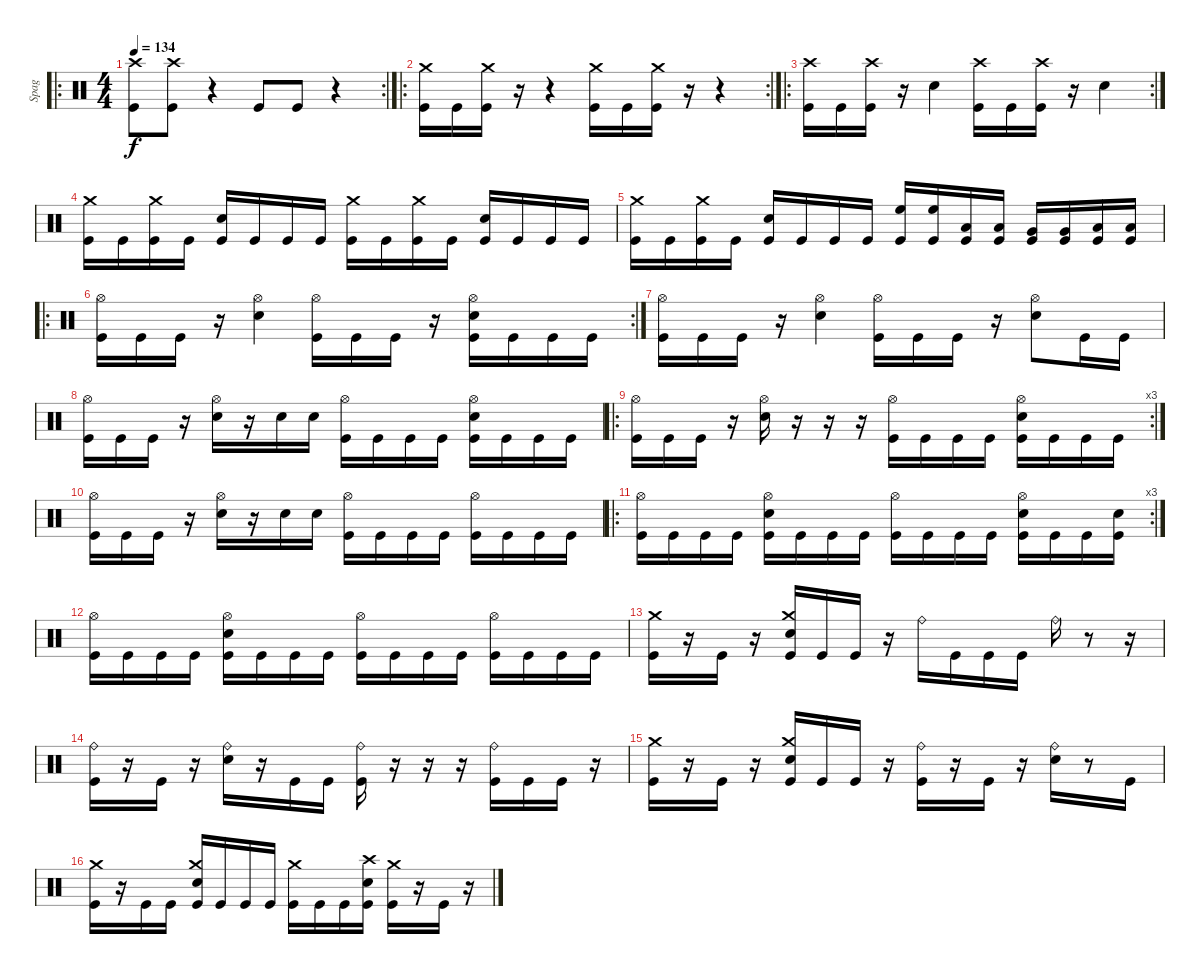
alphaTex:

\track ("Spag" "Spag") {instrument percussion}
\staff {score}
\articulation defaults
\ro
\rc 2
\ts (4 4)
\tempo 134
\clef neutral
\ks c
("Crash high (hit)" "Kick (hit)").8{dy f} ("Crash high (hit)" "Kick (hit)").8 r.4 "Kick (hit)".8 "Kick (hit)".8 r.4 |
\ro
\rc 2
("Crash medium (hit)" "Kick (hit)").16 "Kick (hit)".16 ("Crash medium (hit)" "Kick (hit)").16 r.16 r.4 ("Crash medium (hit)" "Kick (hit)").16 "Kick (hit)".16 ("Crash medium (hit)" "Kick (hit)").16 r.16 r.4 |
\ro
\rc 2
("Crash high (hit)" "Kick (hit)").16 "Kick (hit)".16 ("Crash high (hit)" "Kick (hit)").16 r.16 "Electric Snare (hit)".4 ("Crash high (hit)" "Kick (hit)").16 "Kick (hit)".16 ("Crash high (hit)" "Kick (hit)").16 r.16 "Electric Snare (hit)".4 |
("Crash medium (hit)" "Kick (hit)").16 "Kick (hit)".16 ("Crash medium (hit)" "Kick (hit)").16 "Kick (hit)".16 ("Electric Snare (hit)" "Kick (hit)").16 "Kick (hit)".16 "Kick (hit)".16 "Kick (hit)".16 ("Crash medium (hit)" "Kick (hit)").16 "Kick (hit)".16 ("Crash medium (hit)" "Kick (hit)").16 "Kick (hit)".16 ("Electric Snare (hit)" "Kick (hit)").16 "Kick (hit)".16 "Kick (hit)".16 "Kick (hit)".16 |
("Crash medium (hit)" "Kick (hit)").16 "Kick (hit)".16 ("Crash medium (hit)" "Kick (hit)").16 "Kick (hit)".16 ("Electric Snare (hit)" "Kick (hit)").16 "Kick (hit)".16 "Kick (hit)".16 "Kick (hit)".16 ("High Floor Tom (hit)" "Kick (hit)").16 ("High Floor Tom (hit)" "Kick (hit)").16 ("Low Tom (hit)" "Kick (hit)").16 ("Low Tom (hit)" "Kick (hit)").16 ("Very Low Tom (hit)" "Kick (hit)").16 ("Very Low Tom (hit)" "Kick (hit)").16 ("Low Floor Tom (hit)" "Kick (hit)").16 ("Low Floor Tom (hit)" "Kick (hit)").16 |
\ro
\rc 2
("Hi-Hat (open)" "Kick (hit)").16 "Kick (hit)".16 "Kick (hit)".16 r.16 ("Hi-Hat (open)" "Electric Snare (hit)").4 ("Hi-Hat (open)" "Kick (hit)").16 "Kick (hit)".16 "Kick (hit)".16 r.16 ("Hi-Hat (open)" "Electric Snare (hit)" "Kick (hit)").16 "Kick (hit)".16 "Kick (hit)".16 "Kick (hit)".16 |
("Hi-Hat (open)" "Kick (hit)").16 "Kick (hit)".16 "Kick (hit)".16 r.16 ("Hi-Hat (open)" "Electric Snare (hit)").4 ("Hi-Hat (open)" "Kick (hit)").16 "Kick (hit)".16 "Kick (hit)".16 r.16 ("Hi-Hat (open)" "Electric Snare (hit)").8 "Kick (hit)".16 "Kick (hit)".16 |
("Hi-Hat (open)" "Kick (hit)").16 "Kick (hit)".16 "Kick (hit)".16 r.16 ("Hi-Hat (open)" "Electric Snare (hit)").16 r.16 "Electric Snare (hit)".16 "Electric Snare (hit)".16 ("Hi-Hat (open)" "Kick (hit)").16 "Kick (hit)".16 "Kick (hit)".16 "Kick (hit)".16 ("Hi-Hat (open)" "Electric Snare (hit)" "Kick (hit)").16 "Kick (hit)".16 "Kick (hit)".16 "Kick (hit)".16 |
\ro
\rc 3
("Hi-Hat (open)" "Kick (hit)").16 "Kick (hit)".16 "Kick (hit)".16 r.16 ("Hi-Hat (open)" "Electric Snare (hit)").16 r.16 r.16 r.16 ("Hi-Hat (open)" "Kick (hit)").16 "Kick (hit)".16 "Kick (hit)".16 "Kick (hit)".16 ("Hi-Hat (open)" "Electric Snare (hit)" "Kick (hit)").16 "Kick (hit)".16 "Kick (hit)".16 "Kick (hit)".16 |
("Hi-Hat (open)" "Kick (hit)").16 "Kick (hit)".16 "Kick (hit)".16 r.16 ("Hi-Hat (open)" "Electric Snare (hit)").16 r.16 "Electric Snare (hit)".16 "Electric Snare (hit)".16 ("Hi-Hat (open)" "Kick (hit)").16 "Kick (hit)".16 "Kick (hit)".16 "Kick (hit)".16 ("Hi-Hat (open)" "Kick (hit)").16 "Kick (hit)".16 "Kick (hit)".16 "Kick (hit)".16 |
\ro
\rc 3
("Hi-Hat (open)" "Kick (hit)").16 "Kick (hit)".16 "Kick (hit)".16 "Kick (hit)".16 ("Hi-Hat (open)" "Electric Snare (hit)" "Kick (hit)").16 "Kick (hit)".16 "Kick (hit)".16 "Kick (hit)".16 ("Hi-Hat (open)" "Kick (hit)").16 "Kick (hit)".16 "Kick (hit)".16 "Kick (hit)".16 ("Hi-Hat (open)" "Electric Snare (hit)" "Kick (hit)").16 "Kick (hit)".16 "Kick (hit)".16 ("Electric Snare (hit)" "Kick (hit)").16 |
("Hi-Hat (open)" "Kick (hit)").16 "Kick (hit)".16 "Kick (hit)".16 "Kick (hit)".16 ("Hi-Hat (open)" "Electric Snare (hit)" "Kick (hit)").16 "Kick (hit)".16 "Kick (hit)".16 "Kick (hit)".16 ("Hi-Hat (open)" "Kick (hit)").16 "Kick (hit)".16 "Kick (hit)".16 "Kick (hit)".16 ("Hi-Hat (open)" "Kick (hit)").16 "Kick (hit)".16 "Kick (hit)".16 "Kick (hit)".16 |
("Crash medium (hit)" "Kick (hit)").16 r.16 "Kick (hit)".16 r.16 ("Crash medium (hit)" "Electric Snare (hit)" "Kick (hit)").16 "Kick (hit)".16 "Kick (hit)".16 r.16 "Ride (bell)".16 "Kick (hit)".16 "Kick (hit)".16 "Kick (hit)".16 "Ride (bell)".16 r.8 r.16 |
("Ride (bell)" "Kick (hit)").16 r.16 "Kick (hit)".16 r.16 ("Ride (bell)" "Electric Snare (hit)").16 r.16 "Kick (hit)".16 "Kick (hit)".16 ("Ride (bell)" "Kick (hit)").16 r.16 r.16 r.16 ("Ride (bell)" "Kick (hit)").16 "Kick (hit)".16 "Kick (hit)".16 r.16 |
("Crash medium (hit)" "Kick (hit)").16 r.16 "Kick (hit)".16 r.16 ("Crash medium (hit)" "Electric Snare (hit)" "Kick (hit)").16 "Kick (hit)".16 "Kick (hit)".16 r.16 ("Kick (hit)" "Ride (bell)").16 r.16 "Kick (hit)".16 r.16 ("Ride (bell)" "Electric Snare (hit)").16 r.8 "Kick (hit)".16 |
("Crash medium (hit)" "Kick (hit)").16 r.16 "Kick (hit)".16 "Kick (hit)".16 ("Crash medium (hit)" "Electric Snare (hit)" "Kick (hit)").16 "Kick (hit)".16 "Kick (hit)".16 "Kick (hit)".16 ("Crash medium (hit)" "Kick (hit)").16 "Kick (hit)".16 "Kick (hit)".16 ("Crash high (hit)" "Electric Snare (hit)" "Kick (hit)").16 ("Crash medium (hit)" "Kick (hit)").16 r.16 "Kick (hit)".16 r.16
